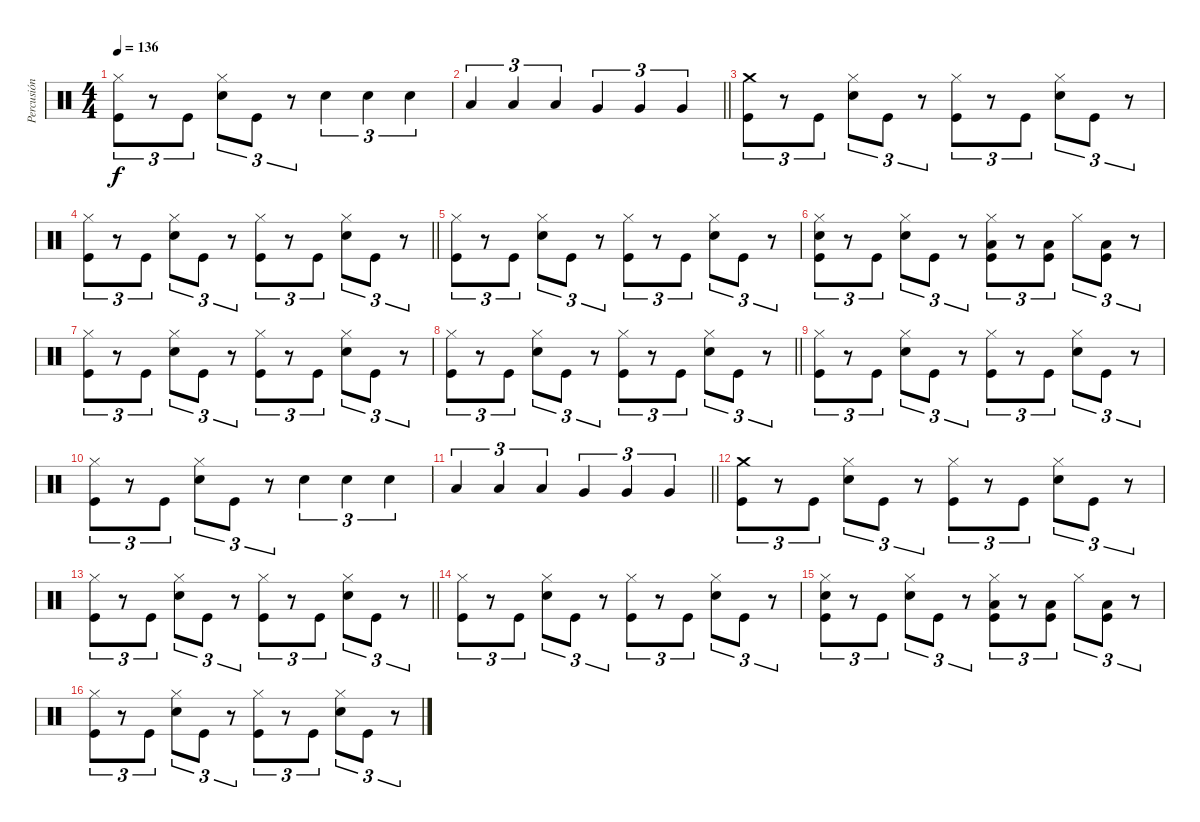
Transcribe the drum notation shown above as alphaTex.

\track ("Percusión" "Percusión") {instrument percussion}
\staff {score}
\articulation defaults
\ts (4 4)
\tempo 136
\clef neutral
\ks c
("Hi-Hat (closed)" "Kick (hit)").8{tu (3 2) dy f} r.8{tu (3 2)} "Kick (hit)".8{tu (3 2)} ("Hi-Hat (closed)" "Snare (hit) 2").8{tu (3 2)} "Kick (hit)".8{tu (3 2)} r.8{tu (3 2)} "Snare (hit) 2".4{tu (3 2)} "Snare (hit) 2".4{tu (3 2)} "Snare (hit) 2".4{tu (3 2)} |
\barLineRight lightlight "Low Tom (hit)".4{tu (3 2)} "Low Tom (hit)".4{tu (3 2)} "Low Tom (hit)".4{tu (3 2)} "Very Low Tom (hit)".4{tu (3 2)} "Very Low Tom (hit)".4{tu (3 2)} "Very Low Tom (hit)".4{tu (3 2)}
|
("Crash medium (hit)" "Kick (hit)").8{tu (3 2)} r.8{tu (3 2)} "Kick (hit)".8{tu (3 2)} ("Hi-Hat (closed)" "Snare (hit) 2").8{tu (3 2)} "Kick (hit)".8{tu (3 2)} r.8{tu (3 2)} ("Hi-Hat (closed)" "Kick (hit)").8{tu (3 2)} r.8{tu (3 2)} "Kick (hit)".8{tu (3 2)} ("Hi-Hat (closed)" "Snare (hit) 2").8{tu (3 2)} "Kick (hit)".8{tu (3 2)} r.8{tu (3 2)} |
\barLineRight lightlight
("Hi-Hat (closed)" "Kick (hit)").8{tu (3 2)} r.8{tu (3 2)} "Kick (hit)".8{tu (3 2)} ("Hi-Hat (closed)" "Snare (hit) 2").8{tu (3 2)} "Kick (hit)".8{tu (3 2)} r.8{tu (3 2)} ("Hi-Hat (closed)" "Kick (hit)").8{tu (3 2)} r.8{tu (3 2)} "Kick (hit)".8{tu (3 2)} ("Hi-Hat (closed)" "Snare (hit) 2").8{tu (3 2)} "Kick (hit)".8{tu (3 2)} r.8{tu (3 2)} |
("Hi-Hat (closed)" "Kick (hit)").8{tu (3 2)} r.8{tu (3 2)} "Kick (hit)".8{tu (3 2)} ("Hi-Hat (closed)" "Snare (hit) 2").8{tu (3 2)} "Kick (hit)".8{tu (3 2)} r.8{tu (3 2)} ("Hi-Hat (closed)" "Kick (hit)").8{tu (3 2)} r.8{tu (3 2)} "Kick (hit)".8{tu (3 2)} ("Hi-Hat (closed)" "Snare (hit) 2").8{tu (3 2)} "Kick (hit)".8{tu (3 2)} r.8{tu (3 2)} |
("Hi-Hat (closed)" "Snare (hit) 2" "Kick (hit)").8{tu (3 2)} r.8{tu (3 2)} "Kick (hit)".8{tu (3 2)} ("Hi-Hat (closed)" "Snare (hit) 2").8{tu (3 2)} "Kick (hit)".8{tu (3 2)} r.8{tu (3 2)} ("Hi-Hat (closed)" "Low Tom (hit)" "Kick (hit)").8{tu (3 2)} r.8{tu (3 2)} ("Low Tom (hit)" "Kick (hit)").8{tu (3 2)} "Hi-Hat (closed)".8{tu (3 2)} ("Low Tom (hit)" "Kick (hit)").8{tu (3 2)} r.8{tu (3 2)} |
("Hi-Hat (closed)" "Kick (hit)").8{tu (3 2)} r.8{tu (3 2)} "Kick (hit)".8{tu (3 2)} ("Hi-Hat (closed)" "Snare (hit) 2").8{tu (3 2)} "Kick (hit)".8{tu (3 2)} r.8{tu (3 2)} ("Hi-Hat (closed)" "Kick (hit)").8{tu (3 2)} r.8{tu (3 2)} "Kick (hit)".8{tu (3 2)} ("Hi-Hat (closed)" "Snare (hit) 2").8{tu (3 2)} "Kick (hit)".8{tu (3 2)} r.8{tu (3 2)} |
\barLineRight lightlight
("Hi-Hat (closed)" "Kick (hit)").8{tu (3 2)} r.8{tu (3 2)} "Kick (hit)".8{tu (3 2)} ("Hi-Hat (closed)" "Snare (hit) 2").8{tu (3 2)} "Kick (hit)".8{tu (3 2)} r.8{tu (3 2)} ("Hi-Hat (closed)" "Kick (hit)").8{tu (3 2)} r.8{tu (3 2)} "Kick (hit)".8{tu (3 2)} ("Hi-Hat (closed)" "Snare (hit) 2").8{tu (3 2)} "Kick (hit)".8{tu (3 2)} r.8{tu (3 2)} |
("Hi-Hat (closed)" "Kick (hit)").8{tu (3 2)} r.8{tu (3 2)} "Kick (hit)".8{tu (3 2)} ("Hi-Hat (closed)" "Snare (hit) 2").8{tu (3 2)} "Kick (hit)".8{tu (3 2)} r.8{tu (3 2)} ("Hi-Hat (closed)" "Kick (hit)").8{tu (3 2)} r.8{tu (3 2)} "Kick (hit)".8{tu (3 2)} ("Hi-Hat (closed)" "Snare (hit) 2").8{tu (3 2)} "Kick (hit)".8{tu (3 2)} r.8{tu (3 2)} |
("Hi-Hat (closed)" "Kick (hit)").8{tu (3 2)} r.8{tu (3 2)} "Kick (hit)".8{tu (3 2)} ("Hi-Hat (closed)" "Snare (hit) 2").8{tu (3 2)} "Kick (hit)".8{tu (3 2)} r.8{tu (3 2)} "Snare (hit) 2".4{tu (3 2)} "Snare (hit) 2".4{tu (3 2)} "Snare (hit) 2".4{tu (3 2)} |
\barLineRight lightlight "Low Tom (hit)".4{tu (3 2)} "Low Tom (hit)".4{tu (3 2)} "Low Tom (hit)".4{tu (3 2)} "Very Low Tom (hit)".4{tu (3 2)} "Very Low Tom (hit)".4{tu (3 2)} "Very Low Tom (hit)".4{tu (3 2)}
|
("Crash medium (hit)" "Kick (hit)").8{tu (3 2)} r.8{tu (3 2)} "Kick (hit)".8{tu (3 2)} ("Hi-Hat (closed)" "Snare (hit) 2").8{tu (3 2)} "Kick (hit)".8{tu (3 2)} r.8{tu (3 2)} ("Hi-Hat (closed)" "Kick (hit)").8{tu (3 2)} r.8{tu (3 2)} "Kick (hit)".8{tu (3 2)} ("Hi-Hat (closed)" "Snare (hit) 2").8{tu (3 2)} "Kick (hit)".8{tu (3 2)} r.8{tu (3 2)} |
\barLineRight lightlight
("Hi-Hat (closed)" "Kick (hit)").8{tu (3 2)} r.8{tu (3 2)} "Kick (hit)".8{tu (3 2)} ("Hi-Hat (closed)" "Snare (hit) 2").8{tu (3 2)} "Kick (hit)".8{tu (3 2)} r.8{tu (3 2)} ("Hi-Hat (closed)" "Kick (hit)").8{tu (3 2)} r.8{tu (3 2)} "Kick (hit)".8{tu (3 2)} ("Hi-Hat (closed)" "Snare (hit) 2").8{tu (3 2)} "Kick (hit)".8{tu (3 2)} r.8{tu (3 2)} |
("Hi-Hat (closed)" "Kick (hit)").8{tu (3 2)} r.8{tu (3 2)} "Kick (hit)".8{tu (3 2)} ("Hi-Hat (closed)" "Snare (hit) 2").8{tu (3 2)} "Kick (hit)".8{tu (3 2)} r.8{tu (3 2)} ("Hi-Hat (closed)" "Kick (hit)").8{tu (3 2)} r.8{tu (3 2)} "Kick (hit)".8{tu (3 2)} ("Hi-Hat (closed)" "Snare (hit) 2").8{tu (3 2)} "Kick (hit)".8{tu (3 2)} r.8{tu (3 2)} |
("Hi-Hat (closed)" "Snare (hit) 2" "Kick (hit)").8{tu (3 2)} r.8{tu (3 2)} "Kick (hit)".8{tu (3 2)} ("Hi-Hat (closed)" "Snare (hit) 2").8{tu (3 2)} "Kick (hit)".8{tu (3 2)} r.8{tu (3 2)} ("Hi-Hat (closed)" "Low Tom (hit)" "Kick (hit)").8{tu (3 2)} r.8{tu (3 2)} ("Low Tom (hit)" "Kick (hit)").8{tu (3 2)} "Hi-Hat (closed)".8{tu (3 2)} ("Low Tom (hit)" "Kick (hit)").8{tu (3 2)} r.8{tu (3 2)} |
("Hi-Hat (closed)" "Kick (hit)").8{tu (3 2)} r.8{tu (3 2)} "Kick (hit)".8{tu (3 2)} ("Hi-Hat (closed)" "Snare (hit) 2").8{tu (3 2)} "Kick (hit)".8{tu (3 2)} r.8{tu (3 2)} ("Hi-Hat (closed)" "Kick (hit)").8{tu (3 2)} r.8{tu (3 2)} "Kick (hit)".8{tu (3 2)} ("Hi-Hat (closed)" "Snare (hit) 2").8{tu (3 2)} "Kick (hit)".8{tu (3 2)} r.8{tu (3 2)}
